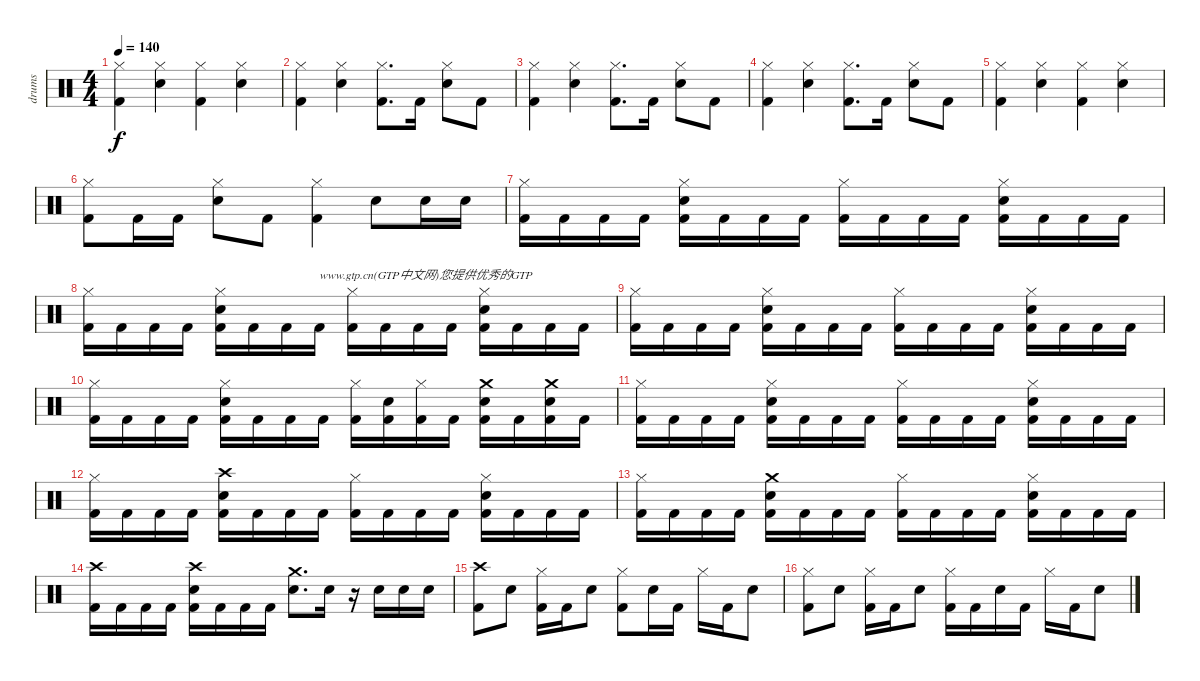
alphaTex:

\track ("drums" "drums") {instrument percussion}
\staff {score}
\articulation defaults
\ts (4 4)
\tempo 140
\clef neutral
\ks c
("Hi-Hat (closed)" "Kick (hit) 2").4{dy f} ("Hi-Hat (closed)" "Electric Snare (hit)").4 ("Hi-Hat (closed)" "Kick (hit) 2").4 ("Hi-Hat (closed)" "Electric Snare (hit)").4 |
("Hi-Hat (closed)" "Kick (hit) 2").4 ("Hi-Hat (closed)" "Electric Snare (hit)").4 ("Hi-Hat (closed)" "Kick (hit) 2").8{d} "Kick (hit) 2".16 ("Hi-Hat (closed)" "Electric Snare (hit)").8 "Kick (hit) 2".8 |
("Hi-Hat (closed)" "Kick (hit) 2").4 ("Hi-Hat (closed)" "Electric Snare (hit)").4 ("Hi-Hat (closed)" "Kick (hit) 2").8{d} "Kick (hit) 2".16 ("Hi-Hat (closed)" "Electric Snare (hit)").8 "Kick (hit) 2".8 |
("Hi-Hat (closed)" "Kick (hit) 2").4 ("Hi-Hat (closed)" "Electric Snare (hit)").4 ("Hi-Hat (closed)" "Kick (hit) 2").8{d} "Kick (hit) 2".16 ("Hi-Hat (closed)" "Electric Snare (hit)").8 "Kick (hit) 2".8 |
("Hi-Hat (closed)" "Kick (hit) 2").4 ("Hi-Hat (closed)" "Electric Snare (hit)").4 ("Hi-Hat (closed)" "Kick (hit) 2").4 ("Hi-Hat (closed)" "Electric Snare (hit)").4 |
("Hi-Hat (closed)" "Kick (hit) 2").8 "Kick (hit) 2".16 "Kick (hit) 2".16 ("Hi-Hat (closed)" "Electric Snare (hit)").8 "Kick (hit) 2".8 ("Hi-Hat (closed)" "Kick (hit) 2").4 "Electric Snare (hit)".8 "Electric Snare (hit)".16 "Electric Snare (hit)".16 |
("Hi-Hat (closed)" "Kick (hit) 2").16 "Kick (hit) 2".16 "Kick (hit) 2".16 "Kick (hit) 2".16 ("Hi-Hat (closed)" "Electric Snare (hit)" "Kick (hit) 2").16 "Kick (hit) 2".16 "Kick (hit) 2".16 "Kick (hit) 2".16 ("Hi-Hat (closed)" "Kick (hit) 2").16 "Kick (hit) 2".16 "Kick (hit) 2".16 "Kick (hit) 2".16 ("Hi-Hat (closed)" "Electric Snare (hit)" "Kick (hit) 2").16 "Kick (hit) 2".16 "Kick (hit) 2".16 "Kick (hit) 2".16 |
("Hi-Hat (closed)" "Kick (hit) 2").16 "Kick (hit) 2".16 "Kick (hit) 2".16 "Kick (hit) 2".16 ("Hi-Hat (closed)" "Electric Snare (hit)" "Kick (hit) 2").16 "Kick (hit) 2".16 "Kick (hit) 2".16 "Kick (hit) 2".16{txt "www.gtp.cn(GTP中文网)您提供优秀的GTP"} ("Hi-Hat (closed)" "Kick (hit) 2").16 "Kick (hit) 2".16 "Kick (hit) 2".16 "Kick (hit) 2".16 ("Hi-Hat (closed)" "Electric Snare (hit)" "Kick (hit) 2").16 "Kick (hit) 2".16 "Kick (hit) 2".16 "Kick (hit) 2".16 |
("Hi-Hat (closed)" "Kick (hit) 2").16 "Kick (hit) 2".16 "Kick (hit) 2".16 "Kick (hit) 2".16 ("Hi-Hat (closed)" "Electric Snare (hit)" "Kick (hit) 2").16 "Kick (hit) 2".16 "Kick (hit) 2".16 "Kick (hit) 2".16 ("Hi-Hat (closed)" "Kick (hit) 2").16 "Kick (hit) 2".16 "Kick (hit) 2".16 "Kick (hit) 2".16 ("Hi-Hat (closed)" "Electric Snare (hit)" "Kick (hit) 2").16 "Kick (hit) 2".16 "Kick (hit) 2".16 "Kick (hit) 2".16 |
("Hi-Hat (closed)" "Kick (hit) 2").16 "Kick (hit) 2".16 "Kick (hit) 2".16 "Kick (hit) 2".16 ("Hi-Hat (closed)" "Electric Snare (hit)" "Kick (hit) 2").16 "Kick (hit) 2".16 "Kick (hit) 2".16 "Kick (hit) 2".16 ("Hi-Hat (closed)" "Kick (hit) 2").16 ("Electric Snare (hit)" "Kick (hit) 2").16 ("Hi-Hat (closed)" "Kick (hit) 2").16 "Kick (hit) 2".16 ("Crash medium (hit)" "Electric Snare (hit)" "Kick (hit) 2").16 "Kick (hit) 2".16 ("Crash medium (hit)" "Electric Snare (hit)" "Kick (hit) 2").16 "Kick (hit) 2".16 |
("Hi-Hat (closed)" "Kick (hit) 2").16 "Kick (hit) 2".16 "Kick (hit) 2".16 "Kick (hit) 2".16 ("Hi-Hat (closed)" "Electric Snare (hit)" "Kick (hit) 2").16 "Kick (hit) 2".16 "Kick (hit) 2".16 "Kick (hit) 2".16 ("Hi-Hat (closed)" "Kick (hit) 2").16 "Kick (hit) 2".16 "Kick (hit) 2".16 "Kick (hit) 2".16 ("Hi-Hat (closed)" "Electric Snare (hit)" "Kick (hit) 2").16 "Kick (hit) 2".16 "Kick (hit) 2".16 "Kick (hit) 2".16 |
("Hi-Hat (closed)" "Kick (hit) 2").16 "Kick (hit) 2".16 "Kick (hit) 2".16 "Kick (hit) 2".16 ("Crash high (hit)" "Electric Snare (hit)" "Kick (hit) 2").16 "Kick (hit) 2".16 "Kick (hit) 2".16 "Kick (hit) 2".16 ("Hi-Hat (closed)" "Kick (hit) 2").16 "Kick (hit) 2".16 "Kick (hit) 2".16 "Kick (hit) 2".16 ("Hi-Hat (closed)" "Electric Snare (hit)" "Kick (hit) 2").16 "Kick (hit) 2".16 "Kick (hit) 2".16 "Kick (hit) 2".16 |
("Hi-Hat (closed)" "Kick (hit) 2").16 "Kick (hit) 2".16 "Kick (hit) 2".16 "Kick (hit) 2".16 ("Crash medium (hit)" "Electric Snare (hit)" "Kick (hit) 2").16 "Kick (hit) 2".16 "Kick (hit) 2".16 "Kick (hit) 2".16 ("Hi-Hat (closed)" "Kick (hit) 2").16 "Kick (hit) 2".16 "Kick (hit) 2".16 "Kick (hit) 2".16 ("Hi-Hat (closed)" "Electric Snare (hit)" "Kick (hit) 2").16 "Kick (hit) 2".16 "Kick (hit) 2".16 "Kick (hit) 2".16 |
("Crash high (hit)" "Kick (hit) 2").16 "Kick (hit) 2".16 "Kick (hit) 2".16 "Kick (hit) 2".16 ("Crash high (hit)" "Electric Snare (hit)" "Kick (hit) 2").16 "Kick (hit) 2".16 "Kick (hit) 2".16 "Kick (hit) 2".16 ("Crash medium (hit)" "Electric Snare (hit)").8{d} "Electric Snare (hit)".16 r.16 "Electric Snare (hit)".16 "Electric Snare (hit)".16 "Electric Snare (hit)".16 |
("Crash high (hit)" "Kick (hit) 2").8 "Electric Snare (hit)".8 ("Hi-Hat (closed)" "Kick (hit) 2").16 "Kick (hit) 2".16 "Electric Snare (hit)".8 ("Hi-Hat (closed)" "Kick (hit) 2").8 "Electric Snare (hit)".16 "Kick (hit) 2".16 "Hi-Hat (closed)".16 "Kick (hit) 2".16 "Electric Snare (hit)".8 |
("Hi-Hat (closed)" "Kick (hit) 2").8 "Electric Snare (hit)".8 ("Hi-Hat (closed)" "Kick (hit) 2").16 "Kick (hit) 2".16 "Electric Snare (hit)".8 ("Hi-Hat (closed)" "Kick (hit) 2").16 "Kick (hit) 2".16 "Electric Snare (hit)".16 "Kick (hit) 2".16 "Hi-Hat (closed)".16 "Kick (hit) 2".16 "Electric Snare (hit)".8
